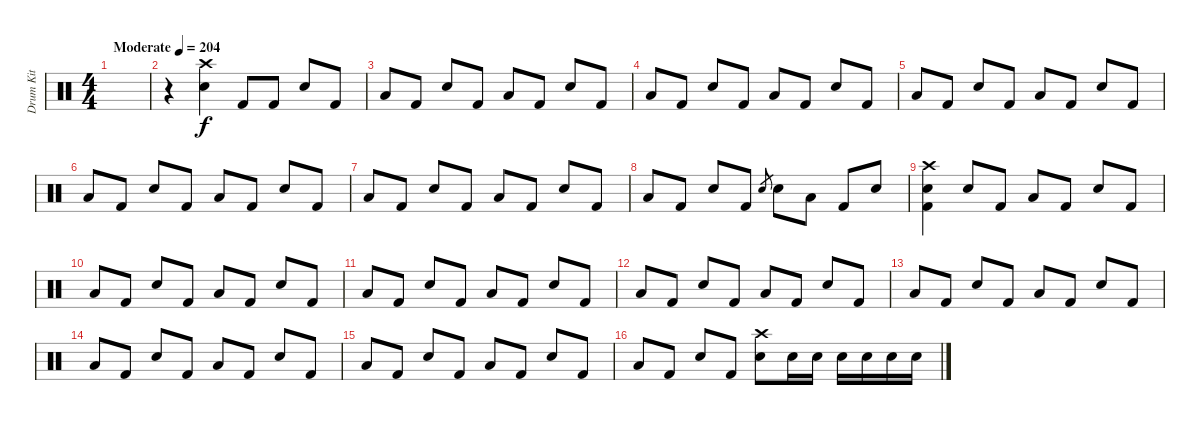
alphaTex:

\track ("Drum Kit" "Drum Kit") {instrument percussion}
\staff {score}
\articulation defaults
\ts (4 4)
\tempo (204 "Moderate")
\clef neutral
\ks c
|
r.4 ("Crash high (hit)" "Snare (hit) 2").4 "Kick (hit) 2".8 "Kick (hit) 2".8 "Snare (hit) 2".8 "Kick (hit) 2".8 |
"Low Floor Tom (hit)".8 "Kick (hit) 2".8 "Snare (hit) 2".8 "Kick (hit) 2".8 "Low Floor Tom (hit)".8 "Kick (hit) 2".8 "Snare (hit) 2".8 "Kick (hit) 2".8 |
"Low Floor Tom (hit)".8 "Kick (hit) 2".8 "Snare (hit) 2".8 "Kick (hit) 2".8 "Low Floor Tom (hit)".8 "Kick (hit) 2".8 "Snare (hit) 2".8 "Kick (hit) 2".8 |
"Low Floor Tom (hit)".8 "Kick (hit) 2".8 "Snare (hit) 2".8 "Kick (hit) 2".8 "Low Floor Tom (hit)".8 "Kick (hit) 2".8 "Snare (hit) 2".8 "Kick (hit) 2".8 |
"Low Floor Tom (hit)".8 "Kick (hit) 2".8 "Snare (hit) 2".8 "Kick (hit) 2".8 "Low Floor Tom (hit)".8 "Kick (hit) 2".8 "Snare (hit) 2".8 "Kick (hit) 2".8 |
"Low Floor Tom (hit)".8 "Kick (hit) 2".8 "Snare (hit) 2".8 "Kick (hit) 2".8 "Low Floor Tom (hit)".8 "Kick (hit) 2".8 "Snare (hit) 2".8 "Kick (hit) 2".8 |
"Low Floor Tom (hit)".8 "Kick (hit) 2".8 "Snare (hit) 2".8 "Kick (hit) 2".8 "Snare (hit) 2".8{gr} "Snare (hit) 2".8 "Low Floor Tom (hit)".8 "Kick (hit) 2".8 "Snare (hit) 2".8 |
("Crash high (hit)" "Snare (hit) 2" "Kick (hit) 2").4 "Snare (hit) 2".8 "Kick (hit) 2".8 "Low Floor Tom (hit)".8 "Kick (hit) 2".8 "Snare (hit) 2".8 "Kick (hit) 2".8 |
"Low Floor Tom (hit)".8 "Kick (hit) 2".8 "Snare (hit) 2".8 "Kick (hit) 2".8 "Low Floor Tom (hit)".8 "Kick (hit) 2".8 "Snare (hit) 2".8 "Kick (hit) 2".8 |
"Low Floor Tom (hit)".8 "Kick (hit) 2".8 "Snare (hit) 2".8 "Kick (hit) 2".8 "Low Floor Tom (hit)".8 "Kick (hit) 2".8 "Snare (hit) 2".8 "Kick (hit) 2".8 |
"Low Floor Tom (hit)".8 "Kick (hit) 2".8 "Snare (hit) 2".8 "Kick (hit) 2".8 "Low Floor Tom (hit)".8 "Kick (hit) 2".8 "Snare (hit) 2".8 "Kick (hit) 2".8 |
"Low Floor Tom (hit)".8 "Kick (hit) 2".8 "Snare (hit) 2".8 "Kick (hit) 2".8 "Low Floor Tom (hit)".8 "Kick (hit) 2".8 "Snare (hit) 2".8 "Kick (hit) 2".8 |
"Low Floor Tom (hit)".8 "Kick (hit) 2".8 "Snare (hit) 2".8 "Kick (hit) 2".8 "Low Floor Tom (hit)".8 "Kick (hit) 2".8 "Snare (hit) 2".8 "Kick (hit) 2".8 |
"Low Floor Tom (hit)".8 "Kick (hit) 2".8 "Snare (hit) 2".8 "Kick (hit) 2".8 "Low Floor Tom (hit)".8 "Kick (hit) 2".8 "Snare (hit) 2".8 "Kick (hit) 2".8 |
"Low Floor Tom (hit)".8 "Kick (hit) 2".8 "Snare (hit) 2".8 "Kick (hit) 2".8 ("Crash high (hit)" "Snare (hit) 2").8 "Snare (hit) 2".16 "Snare (hit) 2".16 "Snare (hit) 2".16 "Snare (hit) 2".16 "Snare (hit) 2".16 "Snare (hit) 2".16
